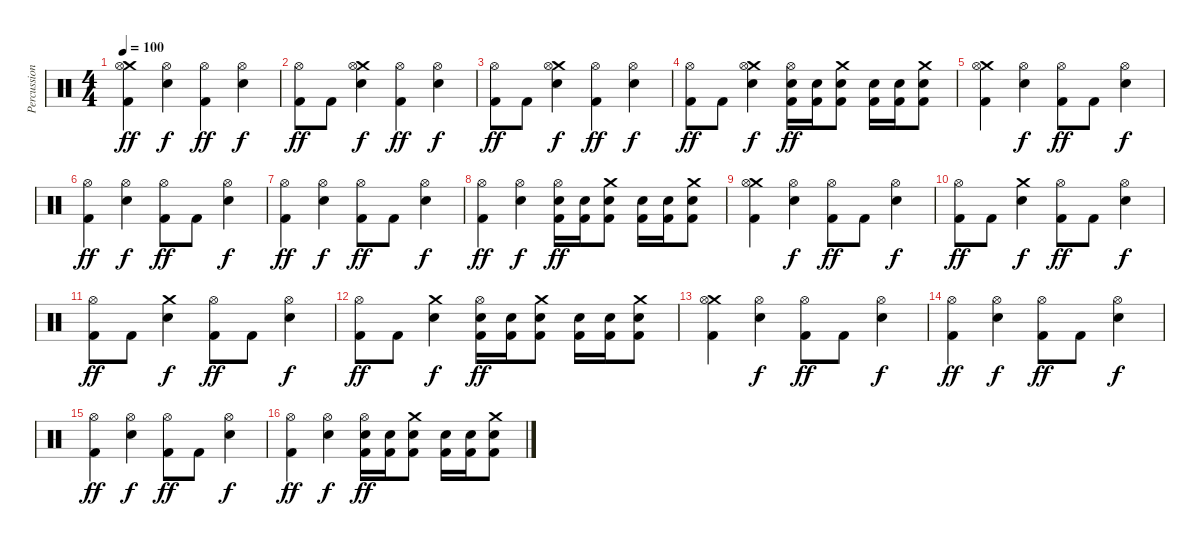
\track ("Percussion" "Percussion") {instrument percussion}
\staff {score}
\articulation defaults
\ts (4 4)
\tempo 100
\clef neutral
\ks c
("Crash medium (hit)" "Hi-Hat (open)" "Kick (hit) 2").4{dy ff} ("Hi-Hat (open)" "Electric Snare (hit)").4{dy f} ("Hi-Hat (open)" "Kick (hit) 2").4{dy ff} ("Hi-Hat (open)" "Electric Snare (hit)").4{dy f} |
("Hi-Hat (open)" "Kick (hit) 2").8{dy ff} "Kick (hit) 2".8 ("Crash medium (hit)" "Hi-Hat (open)" "Electric Snare (hit)").4{dy f} ("Hi-Hat (open)" "Kick (hit) 2").4{dy ff} ("Hi-Hat (open)" "Electric Snare (hit)").4{dy f} |
("Hi-Hat (open)" "Kick (hit) 2").8{dy ff} "Kick (hit) 2".8 ("Crash medium (hit)" "Hi-Hat (open)" "Electric Snare (hit)").4{dy f} ("Hi-Hat (open)" "Kick (hit) 2").4{dy ff} ("Hi-Hat (open)" "Electric Snare (hit)").4{dy f} |
("Hi-Hat (open)" "Kick (hit) 2").8{dy ff} "Kick (hit) 2".8 ("Crash medium (hit)" "Hi-Hat (open)" "Electric Snare (hit)").4{dy f} ("Hi-Hat (open)" "Electric Snare (hit)" "Kick (hit) 2").16{dy ff} ("Electric Snare (hit)" "Kick (hit) 2").16 ("Crash medium (hit)" "Electric Snare (hit)" "Kick (hit) 2").8 ("Electric Snare (hit)" "Kick (hit) 2").16 ("Electric Snare (hit)" "Kick (hit) 2").16 ("Crash medium (hit)" "Electric Snare (hit)" "Kick (hit) 2").8 |
("Crash medium (hit)" "Hi-Hat (open)" "Kick (hit) 2").4 ("Hi-Hat (open)" "Electric Snare (hit)").4{dy f} ("Hi-Hat (open)" "Kick (hit) 2").8{dy ff} "Kick (hit) 2".8 ("Hi-Hat (open)" "Electric Snare (hit)").4{dy f} |
("Hi-Hat (open)" "Kick (hit) 2").4{dy ff} ("Hi-Hat (open)" "Electric Snare (hit)").4{dy f} ("Hi-Hat (open)" "Kick (hit) 2").8{dy ff} "Kick (hit) 2".8 ("Hi-Hat (open)" "Electric Snare (hit)").4{dy f} |
("Hi-Hat (open)" "Kick (hit) 2").4{dy ff} ("Hi-Hat (open)" "Electric Snare (hit)").4{dy f} ("Hi-Hat (open)" "Kick (hit) 2").8{dy ff} "Kick (hit) 2".8 ("Hi-Hat (open)" "Electric Snare (hit)").4{dy f} |
("Hi-Hat (open)" "Kick (hit) 2").4{dy ff} ("Hi-Hat (open)" "Electric Snare (hit)").4{dy f} ("Hi-Hat (open)" "Electric Snare (hit)" "Kick (hit) 2").16{dy ff} ("Electric Snare (hit)" "Kick (hit) 2").16 ("Crash medium (hit)" "Electric Snare (hit)" "Kick (hit) 2").8 ("Electric Snare (hit)" "Kick (hit) 2").16 ("Electric Snare (hit)" "Kick (hit) 2").16 ("Crash medium (hit)" "Electric Snare (hit)" "Kick (hit) 2").8 |
("Crash medium (hit)" "Hi-Hat (open)" "Kick (hit) 2").4 ("Hi-Hat (open)" "Electric Snare (hit)").4{dy f} ("Hi-Hat (open)" "Kick (hit) 2").8{dy ff} "Kick (hit) 2".8 ("Hi-Hat (open)" "Electric Snare (hit)").4{dy f} |
("Hi-Hat (open)" "Kick (hit) 2").8{dy ff} "Kick (hit) 2".8 ("Crash medium (hit)" "Electric Snare (hit)").4{dy f} ("Hi-Hat (open)" "Kick (hit) 2").8{dy ff} "Kick (hit) 2".8 ("Hi-Hat (open)" "Electric Snare (hit)").4{dy f} |
("Hi-Hat (open)" "Kick (hit) 2").8{dy ff} "Kick (hit) 2".8 ("Crash medium (hit)" "Electric Snare (hit)").4{dy f} ("Hi-Hat (open)" "Kick (hit) 2").8{dy ff} "Kick (hit) 2".8 ("Hi-Hat (open)" "Electric Snare (hit)").4{dy f} |
("Hi-Hat (open)" "Kick (hit) 2").8{dy ff} "Kick (hit) 2".8 ("Crash medium (hit)" "Electric Snare (hit)").4{dy f} ("Hi-Hat (open)" "Electric Snare (hit)" "Kick (hit) 2").16{dy ff} ("Electric Snare (hit)" "Kick (hit) 2").16 ("Crash medium (hit)" "Electric Snare (hit)" "Kick (hit) 2").8 ("Electric Snare (hit)" "Kick (hit) 2").16 ("Electric Snare (hit)" "Kick (hit) 2").16 ("Crash medium (hit)" "Electric Snare (hit)" "Kick (hit) 2").8 |
("Crash medium (hit)" "Hi-Hat (open)" "Kick (hit) 2").4 ("Hi-Hat (open)" "Electric Snare (hit)").4{dy f} ("Hi-Hat (open)" "Kick (hit) 2").8{dy ff} "Kick (hit) 2".8 ("Hi-Hat (open)" "Electric Snare (hit)").4{dy f} |
("Hi-Hat (open)" "Kick (hit) 2").4{dy ff} ("Hi-Hat (open)" "Electric Snare (hit)").4{dy f} ("Hi-Hat (open)" "Kick (hit) 2").8{dy ff} "Kick (hit) 2".8 ("Hi-Hat (open)" "Electric Snare (hit)").4{dy f} |
("Hi-Hat (open)" "Kick (hit) 2").4{dy ff} ("Hi-Hat (open)" "Electric Snare (hit)").4{dy f} ("Hi-Hat (open)" "Kick (hit) 2").8{dy ff} "Kick (hit) 2".8 ("Hi-Hat (open)" "Electric Snare (hit)").4{dy f} |
("Hi-Hat (open)" "Kick (hit) 2").4{dy ff} ("Hi-Hat (open)" "Electric Snare (hit)").4{dy f} ("Hi-Hat (open)" "Electric Snare (hit)" "Kick (hit) 2").16{dy ff} ("Electric Snare (hit)" "Kick (hit) 2").16 ("Crash medium (hit)" "Electric Snare (hit)" "Kick (hit) 2").8 ("Electric Snare (hit)" "Kick (hit) 2").16 ("Electric Snare (hit)" "Kick (hit) 2").16 ("Crash medium (hit)" "Electric Snare (hit)" "Kick (hit) 2").8
